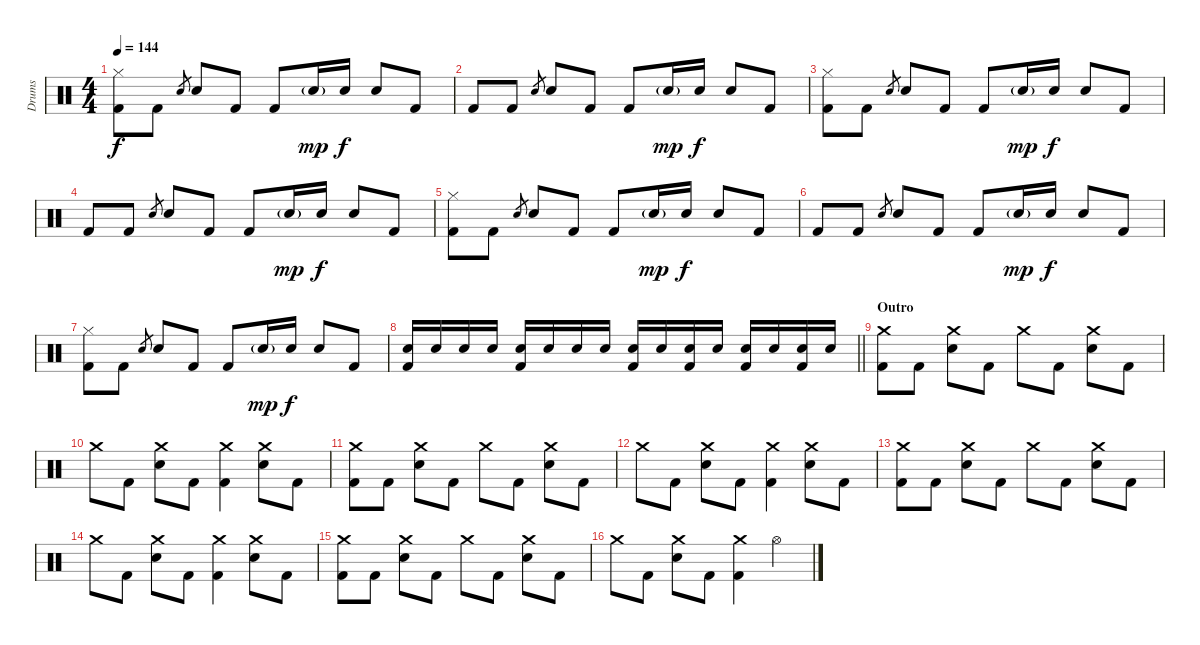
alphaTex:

\track ("Drums" "Drums") {instrument percussion}
\staff {score}
\articulation defaults
\ts (4 4)
\tempo 144
\clef neutral
\ks c
("Hi-Hat (closed)" "Kick (hit) 2").8{dy f} "Kick (hit) 2".8 "Electric Snare (hit)".8{gr} "Electric Snare (hit)".8 "Kick (hit) 2".8 "Kick (hit) 2".8 "Electric Snare (hit)"{g}.16{dy mp} "Electric Snare (hit)".16{dy f} "Electric Snare (hit)".8 "Kick (hit) 2".8 |
"Kick (hit) 2".8 "Kick (hit) 2".8 "Electric Snare (hit)".8{gr} "Electric Snare (hit)".8 "Kick (hit) 2".8 "Kick (hit) 2".8 "Electric Snare (hit)"{g}.16{dy mp} "Electric Snare (hit)".16{dy f} "Electric Snare (hit)".8 "Kick (hit) 2".8 |
("Hi-Hat (closed)" "Kick (hit) 2").8 "Kick (hit) 2".8 "Electric Snare (hit)".8{gr} "Electric Snare (hit)".8 "Kick (hit) 2".8 "Kick (hit) 2".8 "Electric Snare (hit)"{g}.16{dy mp} "Electric Snare (hit)".16{dy f} "Electric Snare (hit)".8 "Kick (hit) 2".8 |
"Kick (hit) 2".8 "Kick (hit) 2".8 "Electric Snare (hit)".8{gr} "Electric Snare (hit)".8 "Kick (hit) 2".8 "Kick (hit) 2".8 "Electric Snare (hit)"{g}.16{dy mp} "Electric Snare (hit)".16{dy f} "Electric Snare (hit)".8 "Kick (hit) 2".8 |
("Hi-Hat (closed)" "Kick (hit) 2").8 "Kick (hit) 2".8 "Electric Snare (hit)".8{gr} "Electric Snare (hit)".8 "Kick (hit) 2".8 "Kick (hit) 2".8 "Electric Snare (hit)"{g}.16{dy mp} "Electric Snare (hit)".16{dy f} "Electric Snare (hit)".8 "Kick (hit) 2".8 |
"Kick (hit) 2".8 "Kick (hit) 2".8 "Electric Snare (hit)".8{gr} "Electric Snare (hit)".8 "Kick (hit) 2".8 "Kick (hit) 2".8 "Electric Snare (hit)"{g}.16{dy mp} "Electric Snare (hit)".16{dy f} "Electric Snare (hit)".8 "Kick (hit) 2".8 |
("Hi-Hat (closed)" "Kick (hit) 2").8 "Kick (hit) 2".8 "Electric Snare (hit)".8{gr} "Electric Snare (hit)".8 "Kick (hit) 2".8 "Kick (hit) 2".8 "Electric Snare (hit)"{g}.16{dy mp} "Electric Snare (hit)".16{dy f} "Electric Snare (hit)".8 "Kick (hit) 2".8 |
\barLineRight lightlight
("Electric Snare (hit)" "Kick (hit) 2").16 "Electric Snare (hit)".16 "Electric Snare (hit)".16 "Electric Snare (hit)".16 ("Electric Snare (hit)" "Kick (hit) 2").16 "Electric Snare (hit)".16 "Electric Snare (hit)".16 "Electric Snare (hit)".16 ("Electric Snare (hit)" "Kick (hit) 2").16 "Electric Snare (hit)".16 ("Electric Snare (hit)" "Kick (hit) 2").16 "Electric Snare (hit)".16 ("Electric Snare (hit)" "Kick (hit) 2").16 "Electric Snare (hit)".16 ("Electric Snare (hit)" "Kick (hit) 2").16 "Electric Snare (hit)".16 |
\section ("" "Outro")
("Crash medium (hit)" "Kick (hit) 2").8 "Kick (hit) 2".8 ("Crash medium (hit)" "Electric Snare (hit)").8 "Kick (hit) 2".8 "Crash medium (hit)".8 "Kick (hit) 2".8 ("Crash medium (hit)" "Electric Snare (hit)").8 "Kick (hit) 2".8 |
"Crash medium (hit)".8 "Kick (hit) 2".8 ("Crash medium (hit)" "Electric Snare (hit)").8 "Kick (hit) 2".8 ("Crash medium (hit)" "Kick (hit) 2").4 ("Crash medium (hit)" "Electric Snare (hit)").8 "Kick (hit) 2".8 |
("Crash medium (hit)" "Kick (hit) 2").8 "Kick (hit) 2".8 ("Crash medium (hit)" "Electric Snare (hit)").8 "Kick (hit) 2".8 "Crash medium (hit)".8 "Kick (hit) 2".8 ("Crash medium (hit)" "Electric Snare (hit)").8 "Kick (hit) 2".8 |
"Crash medium (hit)".8 "Kick (hit) 2".8 ("Crash medium (hit)" "Electric Snare (hit)").8 "Kick (hit) 2".8 ("Crash medium (hit)" "Kick (hit) 2").4 ("Crash medium (hit)" "Electric Snare (hit)").8 "Kick (hit) 2".8 |
("Crash medium (hit)" "Kick (hit) 2").8 "Kick (hit) 2".8 ("Crash medium (hit)" "Electric Snare (hit)").8 "Kick (hit) 2".8 "Crash medium (hit)".8 "Kick (hit) 2".8 ("Crash medium (hit)" "Electric Snare (hit)").8 "Kick (hit) 2".8 |
"Crash medium (hit)".8 "Kick (hit) 2".8 ("Crash medium (hit)" "Electric Snare (hit)").8 "Kick (hit) 2".8 ("Crash medium (hit)" "Kick (hit) 2").4 ("Crash medium (hit)" "Electric Snare (hit)").8 "Kick (hit) 2".8 |
("Crash medium (hit)" "Kick (hit) 2").8 "Kick (hit) 2".8 ("Crash medium (hit)" "Electric Snare (hit)").8 "Kick (hit) 2".8 "Crash medium (hit)".8 "Kick (hit) 2".8 ("Crash medium (hit)" "Electric Snare (hit)").8 "Kick (hit) 2".8 |
"Crash medium (hit)".8 "Kick (hit) 2".8 ("Crash medium (hit)" "Electric Snare (hit)").8 "Kick (hit) 2".8 ("Crash medium (hit)" "Kick (hit) 2").4 "Hi-Hat (open)".4
